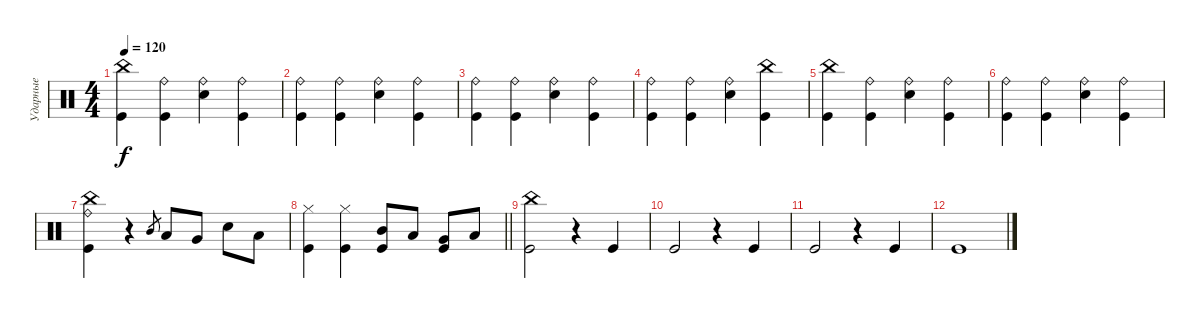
\track ("Ударные" "Ударные") {instrument percussion}
\staff {score}
\articulation defaults
\ts (4 4)
\tempo 120
\clef neutral
\ks c
("China (hit)" "Kick (hit)").4{dy f} ("Ride (bell)" "Kick (hit)").4 ("Ride (bell)" "Electric Snare (hit)").4 ("Ride (bell)" "Kick (hit)").4 |
("Ride (bell)" "Kick (hit)").4 ("Ride (bell)" "Kick (hit)").4 ("Ride (bell)" "Electric Snare (hit)").4 ("Ride (bell)" "Kick (hit)").4 |
("Ride (bell)" "Kick (hit)").4 ("Ride (bell)" "Kick (hit)").4 ("Ride (bell)" "Electric Snare (hit)").4 ("Ride (bell)" "Kick (hit)").4 |
("Ride (bell)" "Kick (hit)").4 ("Ride (bell)" "Kick (hit)").4 ("Ride (bell)" "Electric Snare (hit)").4 ("China (hit)" "Kick (hit)").4 |
("China (hit)" "Kick (hit)").4 ("Ride (bell)" "Kick (hit)").4 ("Ride (bell)" "Electric Snare (hit)").4 ("Ride (bell)" "Kick (hit)").4 |
("Ride (bell)" "Kick (hit)").4 ("Ride (bell)" "Kick (hit)").4 ("Ride (bell)" "Electric Snare (hit)").4 ("Ride (bell)" "Kick (hit)").4 |
("China (hit)" "Ride (bell)" "Kick (hit)").4 r.4 "Mid Tom (hit)".8{gr} "Low Tom (hit)".8 "Very Low Tom (hit)".8 "Electric Snare (hit)".8 "Low Floor Tom (hit)".8 |
\barLineRight lightlight
("Hi-Hat (closed)" "Kick (hit)").4 ("Hi-Hat (closed)" "Kick (hit)").4 ("Mid Tom (hit)" "Kick (hit)").8 "Low Tom (hit)".8 ("Very Low Tom (hit)" "Kick (hit)").8 "Low Floor Tom (hit)".8 |
("China (hit)" "Kick (hit)").2 r.4 "Kick (hit)".4 |
"Kick (hit)".2 r.4 "Kick (hit)".4 |
"Kick (hit)".2 r.4 "Kick (hit)".4 |
"Kick (hit)".1
